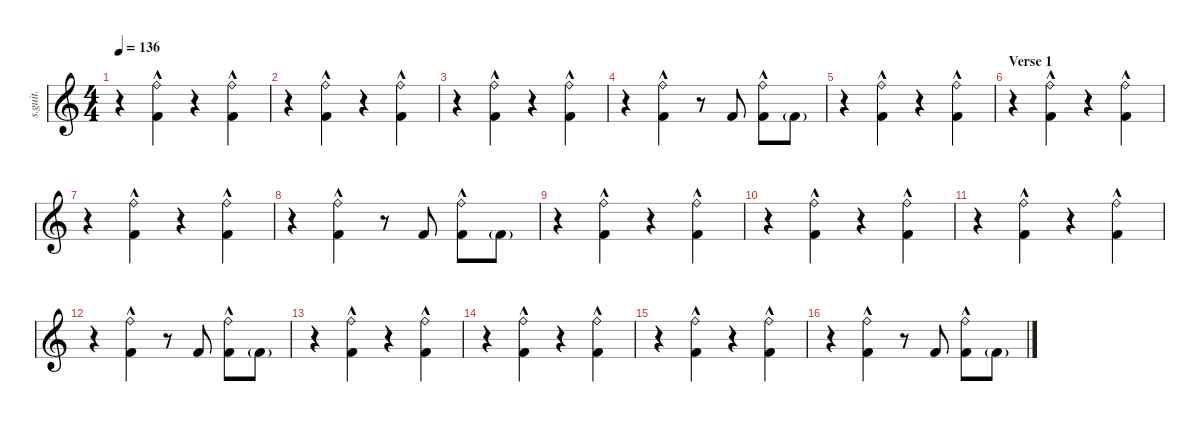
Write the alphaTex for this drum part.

\defaultSystemsLayout 4
\hideDynamics
\bracketExtendMode nobrackets
\track ("Chris Fehn" "s.guit.") {instrument percussion}
\staff {score}
\articulation defaults
\ts (4 4)
\tempo 136
\clef g2
\ks c
r.4{dy fff} ("Ride (bell)"{hac} "Kick (hit) 2"{hac}).4{lyrics (0 "") lyrics (1 "") lyrics (2 "") lyrics (3 "") lyrics (4 "")} r.4 ("Ride (bell)"{hac} "Kick (hit) 2"{hac}).4{lyrics (0 "") lyrics (1 "") lyrics (2 "") lyrics (3 "") lyrics (4 "")} |
r.4 ("Ride (bell)"{hac} "Kick (hit) 2"{hac}).4{lyrics (0 "") lyrics (1 "") lyrics (2 "") lyrics (3 "") lyrics (4 "")} r.4 ("Ride (bell)"{hac} "Kick (hit) 2"{hac}).4{lyrics (0 "") lyrics (1 "") lyrics (2 "") lyrics (3 "") lyrics (4 "")} |
r.4 ("Ride (bell)"{hac} "Kick (hit) 2"{hac}).4{lyrics (0 "") lyrics (1 "") lyrics (2 "") lyrics (3 "") lyrics (4 "")} r.4 ("Ride (bell)"{hac} "Kick (hit) 2"{hac}).4{lyrics (0 "") lyrics (1 "") lyrics (2 "") lyrics (3 "") lyrics (4 "")} |
r.4 ("Ride (bell)"{hac} "Kick (hit) 2"{hac}).4{lyrics (0 "") lyrics (1 "") lyrics (2 "") lyrics (3 "") lyrics (4 "")} r.8 "Kick (hit) 2".8{lyrics (0 "") lyrics (1 "") lyrics (2 "") lyrics (3 "") lyrics (4 "")} ("Ride (bell)"{hac} "Kick (hit) 2"{hac}).8{lyrics (0 "") lyrics (1 "") lyrics (2 "") lyrics (3 "") lyrics (4 "")} "Kick (hit) 2"{g}.8{lyrics (0 "") lyrics (1 "") lyrics (2 "") lyrics (3 "") lyrics (4 "")} |
r.4 ("Ride (bell)"{hac} "Kick (hit) 2"{hac}).4{lyrics (0 "") lyrics (1 "") lyrics (2 "") lyrics (3 "") lyrics (4 "")} r.4 ("Ride (bell)"{hac} "Kick (hit) 2"{hac}).4{lyrics (0 "") lyrics (1 "") lyrics (2 "") lyrics (3 "") lyrics (4 "")} |
\section ("" "Verse 1")
r.4 ("Ride (bell)"{hac} "Kick (hit) 2"{hac}).4{lyrics (0 "") lyrics (1 "") lyrics (2 "") lyrics (3 "") lyrics (4 "")} r.4 ("Ride (bell)"{hac} "Kick (hit) 2"{hac}).4{lyrics (0 "") lyrics (1 "") lyrics (2 "") lyrics (3 "") lyrics (4 "")} |
r.4 ("Ride (bell)"{hac} "Kick (hit) 2"{hac}).4{lyrics (0 "") lyrics (1 "") lyrics (2 "") lyrics (3 "") lyrics (4 "")} r.4 ("Ride (bell)"{hac} "Kick (hit) 2"{hac}).4{lyrics (0 "") lyrics (1 "") lyrics (2 "") lyrics (3 "") lyrics (4 "")} |
r.4 ("Ride (bell)"{hac} "Kick (hit) 2"{hac}).4{lyrics (0 "") lyrics (1 "") lyrics (2 "") lyrics (3 "") lyrics (4 "")} r.8 "Kick (hit) 2".8{lyrics (0 "") lyrics (1 "") lyrics (2 "") lyrics (3 "") lyrics (4 "")} ("Ride (bell)"{hac} "Kick (hit) 2"{hac}).8{lyrics (0 "") lyrics (1 "") lyrics (2 "") lyrics (3 "") lyrics (4 "")} "Kick (hit) 2"{g}.8{lyrics (0 "") lyrics (1 "") lyrics (2 "") lyrics (3 "") lyrics (4 "")} |
r.4 ("Ride (bell)"{hac} "Kick (hit) 2"{hac}).4{lyrics (0 "") lyrics (1 "") lyrics (2 "") lyrics (3 "") lyrics (4 "")} r.4 ("Ride (bell)"{hac} "Kick (hit) 2"{hac}).4{lyrics (0 "") lyrics (1 "") lyrics (2 "") lyrics (3 "") lyrics (4 "")} |
r.4 ("Ride (bell)"{hac} "Kick (hit) 2"{hac}).4{lyrics (0 "") lyrics (1 "") lyrics (2 "") lyrics (3 "") lyrics (4 "")} r.4 ("Ride (bell)"{hac} "Kick (hit) 2"{hac}).4{lyrics (0 "") lyrics (1 "") lyrics (2 "") lyrics (3 "") lyrics (4 "")} |
r.4 ("Ride (bell)"{hac} "Kick (hit) 2"{hac}).4{lyrics (0 "") lyrics (1 "") lyrics (2 "") lyrics (3 "") lyrics (4 "")} r.4 ("Ride (bell)"{hac} "Kick (hit) 2"{hac}).4{lyrics (0 "") lyrics (1 "") lyrics (2 "") lyrics (3 "") lyrics (4 "")} |
r.4 ("Ride (bell)"{hac} "Kick (hit) 2"{hac}).4{lyrics (0 "") lyrics (1 "") lyrics (2 "") lyrics (3 "") lyrics (4 "")} r.8 "Kick (hit) 2".8{lyrics (0 "") lyrics (1 "") lyrics (2 "") lyrics (3 "") lyrics (4 "")} ("Ride (bell)"{hac} "Kick (hit) 2"{hac}).8{lyrics (0 "") lyrics (1 "") lyrics (2 "") lyrics (3 "") lyrics (4 "")} "Kick (hit) 2"{g}.8{lyrics (0 "") lyrics (1 "") lyrics (2 "") lyrics (3 "") lyrics (4 "")} |
r.4 ("Ride (bell)"{hac} "Kick (hit) 2"{hac}).4{lyrics (0 "") lyrics (1 "") lyrics (2 "") lyrics (3 "") lyrics (4 "")} r.4 ("Ride (bell)"{hac} "Kick (hit) 2"{hac}).4{lyrics (0 "") lyrics (1 "") lyrics (2 "") lyrics (3 "") lyrics (4 "")} |
r.4 ("Ride (bell)"{hac} "Kick (hit) 2"{hac}).4{lyrics (0 "") lyrics (1 "") lyrics (2 "") lyrics (3 "") lyrics (4 "")} r.4 ("Ride (bell)"{hac} "Kick (hit) 2"{hac}).4{lyrics (0 "") lyrics (1 "") lyrics (2 "") lyrics (3 "") lyrics (4 "")} |
r.4 ("Ride (bell)"{hac} "Kick (hit) 2"{hac}).4{lyrics (0 "") lyrics (1 "") lyrics (2 "") lyrics (3 "") lyrics (4 "")} r.4 ("Ride (bell)"{hac} "Kick (hit) 2"{hac}).4{lyrics (0 "") lyrics (1 "") lyrics (2 "") lyrics (3 "") lyrics (4 "")} |
r.4 ("Ride (bell)"{hac} "Kick (hit) 2"{hac}).4{lyrics (0 "") lyrics (1 "") lyrics (2 "") lyrics (3 "") lyrics (4 "")} r.8 "Kick (hit) 2".8{lyrics (0 "") lyrics (1 "") lyrics (2 "") lyrics (3 "") lyrics (4 "")} ("Ride (bell)"{hac} "Kick (hit) 2"{hac}).8{lyrics (0 "") lyrics (1 "") lyrics (2 "") lyrics (3 "") lyrics (4 "")} "Kick (hit) 2"{g}.8{lyrics (0 "") lyrics (1 "") lyrics (2 "") lyrics (3 "") lyrics (4 "")}
